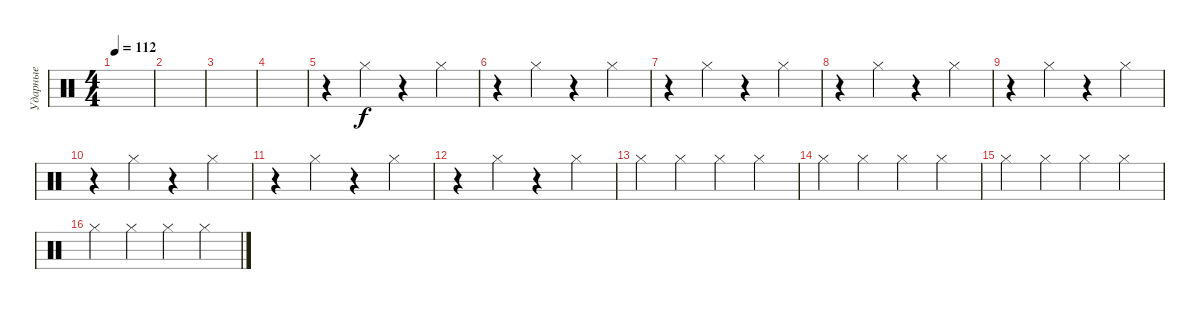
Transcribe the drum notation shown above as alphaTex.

\track ("Ударные" "Ударные") {instrument percussion}
\staff {score}
\articulation defaults
\ts (4 4)
\tempo 112
\clef neutral
\ks c
|
|
|
|
r.4 "Hi-Hat (closed)".4 r.4 "Hi-Hat (closed)".4 |
r.4 "Hi-Hat (closed)".4 r.4 "Hi-Hat (closed)".4 |
r.4 "Hi-Hat (closed)".4 r.4 "Hi-Hat (closed)".4 |
r.4 "Hi-Hat (closed)".4 r.4 "Hi-Hat (closed)".4 |
r.4 "Hi-Hat (closed)".4 r.4 "Hi-Hat (closed)".4 |
r.4 "Hi-Hat (closed)".4 r.4 "Hi-Hat (closed)".4 |
r.4 "Hi-Hat (closed)".4 r.4 "Hi-Hat (closed)".4 |
r.4 "Hi-Hat (closed)".4 r.4 "Hi-Hat (closed)".4 |
"Hi-Hat (closed)".4 "Hi-Hat (closed)".4 "Hi-Hat (closed)".4 "Hi-Hat (closed)".4 |
"Hi-Hat (closed)".4 "Hi-Hat (closed)".4 "Hi-Hat (closed)".4 "Hi-Hat (closed)".4 |
"Hi-Hat (closed)".4 "Hi-Hat (closed)".4 "Hi-Hat (closed)".4 "Hi-Hat (closed)".4 |
"Hi-Hat (closed)".4 "Hi-Hat (closed)".4 "Hi-Hat (closed)".4 "Hi-Hat (closed)".4
